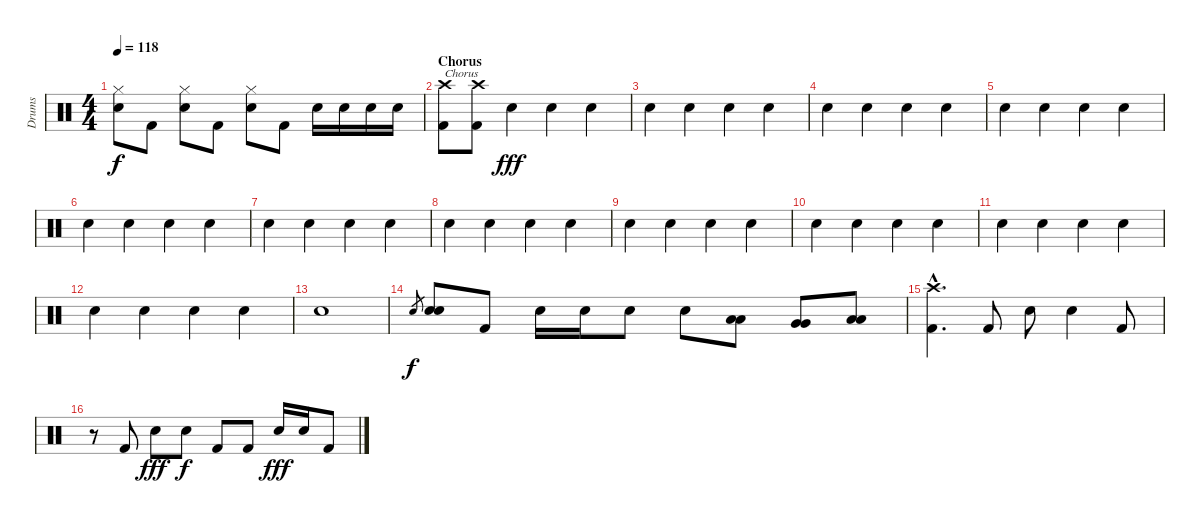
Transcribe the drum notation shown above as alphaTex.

\track ("Drums" "Drums") {instrument percussion}
\staff {score}
\articulation defaults
\ts (4 4)
\tempo 118
\clef neutral
\ks c
("Hi-Hat (closed)" "Snare (hit) 2").8{dy f} "Kick (hit) 2".8 ("Hi-Hat (closed)" "Snare (hit) 2").8 "Kick (hit) 2".8 ("Hi-Hat (closed)" "Snare (hit) 2").8 "Kick (hit) 2".8 "Snare (hit) 2".16 "Snare (hit) 2".16 "Snare (hit) 2".16 "Snare (hit) 2".16 |
\section ("" "Chorus")
("Crash high (hit)" "Kick (hit) 2").8{txt "Chorus"} ("Crash high (hit)" "Kick (hit) 2").8 "Hand Clap (hit)".4{dy fff volume 16} "Hand Clap (hit)".4 "Hand Clap (hit)".4 |
"Hand Clap (hit)".4 "Hand Clap (hit)".4 "Hand Clap (hit)".4 "Hand Clap (hit)".4 |
"Hand Clap (hit)".4 "Hand Clap (hit)".4 "Hand Clap (hit)".4 "Hand Clap (hit)".4 |
"Hand Clap (hit)".4 "Hand Clap (hit)".4 "Hand Clap (hit)".4 "Hand Clap (hit)".4 |
"Hand Clap (hit)".4 "Hand Clap (hit)".4 "Hand Clap (hit)".4 "Hand Clap (hit)".4 |
"Hand Clap (hit)".4 "Hand Clap (hit)".4 "Hand Clap (hit)".4 "Hand Clap (hit)".4 |
"Hand Clap (hit)".4 "Hand Clap (hit)".4 "Hand Clap (hit)".4 "Hand Clap (hit)".4 |
"Hand Clap (hit)".4 "Hand Clap (hit)".4 "Hand Clap (hit)".4 "Hand Clap (hit)".4 |
"Hand Clap (hit)".4 "Hand Clap (hit)".4 "Hand Clap (hit)".4 "Hand Clap (hit)".4 |
"Hand Clap (hit)".4 "Hand Clap (hit)".4 "Hand Clap (hit)".4 "Hand Clap (hit)".4 |
"Hand Clap (hit)".4 "Hand Clap (hit)".4 "Hand Clap (hit)".4 "Hand Clap (hit)".4 |
"Hand Clap (hit)".1{volume 13} |
"Snare (hit) 2".8{gr dy f} ("Snare (hit) 2" "Snare (hit) 2").8 "Kick (hit) 2".8 "Snare (hit) 2".16 "Snare (hit) 2".16 "Snare (hit) 2".8 "Snare (hit) 2".8 ("Low Tom (hit)" "Low Tom (hit)").8 ("Very Low Tom (hit)" "Very Low Tom (hit)").8 ("Low Floor Tom (hit)" "Low Floor Tom (hit)").8 |
("Crash high (hit)"{hac} "Kick (hit) 2"{hac}).4{d} "Kick (hit) 2".8 "Snare (hit) 2".8 "Snare (hit) 2".4 "Kick (hit) 2".8 |
r.8 "Kick (hit) 2".8 "Snare (hit) 2".8{dy fff} "Snare (hit) 2".8{dy f} "Kick (hit) 2".8 "Kick (hit) 2".8 "Snare (hit) 2".16{dy fff} "Snare (hit) 2".16 "Kick (hit) 2".8
